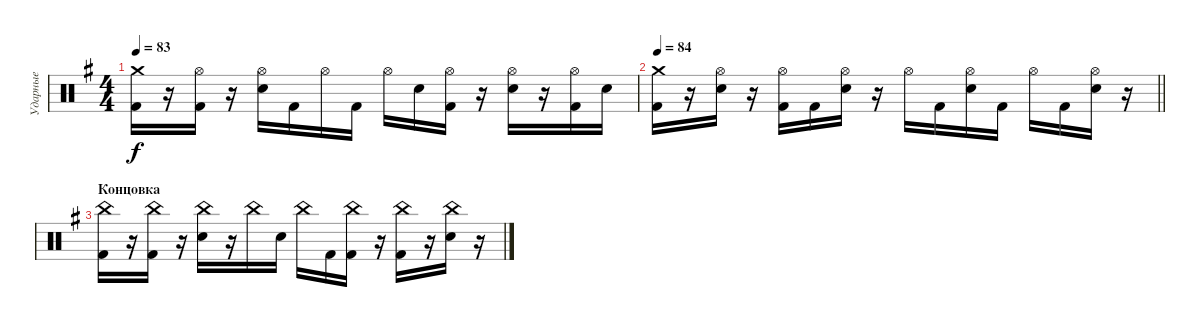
\track ("Ударные" "Ударные") {instrument percussion}
\staff {score}
\articulation defaults
\ts (4 4)
\tempo 83
\clef neutral
\ks eminor
("Crash medium (hit)" "Kick (hit) 2").16{dy f} r.16 ("Hi-Hat (open)" "Kick (hit) 2").16 r.16 ("Hi-Hat (open)" "Electric Snare (hit)").16 "Kick (hit) 2".16 "Hi-Hat (open)".16 "Kick (hit) 2".16 "Hi-Hat (open)".16 "Electric Snare (hit)".16 ("Hi-Hat (open)" "Kick (hit) 2").16 r.16 ("Hi-Hat (open)" "Electric Snare (hit)").16 r.16 ("Hi-Hat (open)" "Kick (hit) 2").16 "Electric Snare (hit)".16 |
\tempo 84
\barLineRight lightlight
("Crash medium (hit)" "Kick (hit) 2").16 r.16 ("Hi-Hat (open)" "Electric Snare (hit)").16 r.16 ("Hi-Hat (open)" "Kick (hit) 2").16 "Kick (hit) 2".16 ("Hi-Hat (open)" "Electric Snare (hit)").16 r.16 "Hi-Hat (open)".16 "Kick (hit) 2".16 ("Hi-Hat (open)" "Electric Snare (hit)").16 "Kick (hit) 2".16 "Hi-Hat (open)".16 "Kick (hit) 2".16 ("Hi-Hat (open)" "Electric Snare (hit)").16 r.16 |
\section ("" "Концовка")
("China (hit)" "Kick (hit) 2").16 r.16 ("China (hit)" "Kick (hit) 2").16 r.16 ("China (hit)" "Electric Snare (hit)").16 r.16 "China (hit)".16 "Electric Snare (hit)".16 "China (hit)".16 "Kick (hit) 2".16 ("China (hit)" "Kick (hit) 2").16 r.16 ("China (hit)" "Kick (hit) 2").16 r.16 ("China (hit)" "Electric Snare (hit)").16 r.16
